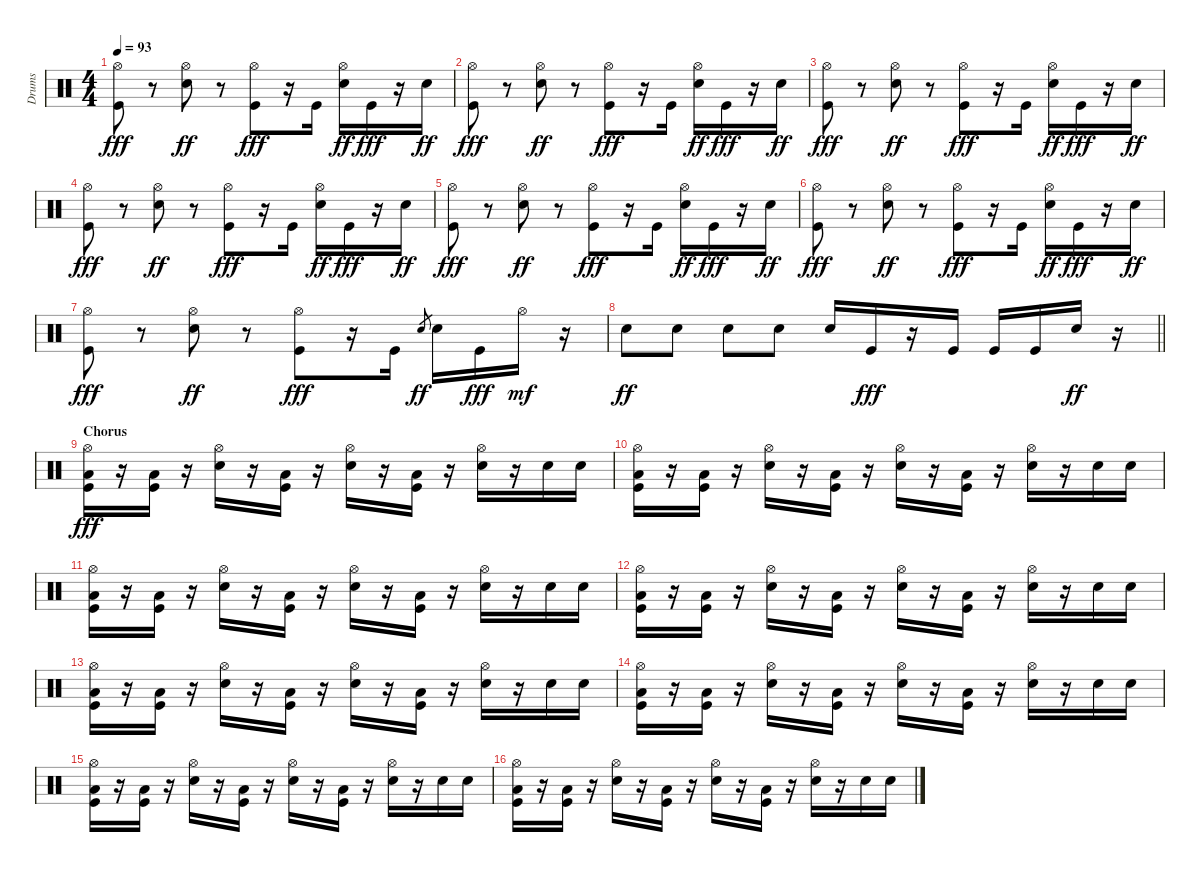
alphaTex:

\track ("Drums" "Drums") {instrument percussion}
\staff {score}
\articulation defaults
\ts (4 4)
\tempo 93
\clef neutral
\ks c
("Hi-Hat (open)" "Kick (hit)").8{dy fff} r.8 ("Hi-Hat (open)" "Electric Snare (hit)").8{dy ff} r.8 ("Hi-Hat (open)" "Kick (hit)").8{dy fff} r.16 "Kick (hit)".16 ("Hi-Hat (open)" "Electric Snare (hit)").16{dy ff} "Kick (hit)".16{dy fff} r.16 "Electric Snare (hit)".16{dy ff} |
("Hi-Hat (open)" "Kick (hit)").8{dy fff} r.8 ("Hi-Hat (open)" "Electric Snare (hit)").8{dy ff} r.8 ("Hi-Hat (open)" "Kick (hit)").8{dy fff} r.16 "Kick (hit)".16 ("Hi-Hat (open)" "Electric Snare (hit)").16{dy ff} "Kick (hit)".16{dy fff} r.16 "Electric Snare (hit)".16{dy ff} |
("Hi-Hat (open)" "Kick (hit)").8{dy fff} r.8 ("Hi-Hat (open)" "Electric Snare (hit)").8{dy ff} r.8 ("Hi-Hat (open)" "Kick (hit)").8{dy fff} r.16 "Kick (hit)".16 ("Hi-Hat (open)" "Electric Snare (hit)").16{dy ff} "Kick (hit)".16{dy fff} r.16 "Electric Snare (hit)".16{dy ff} |
("Hi-Hat (open)" "Kick (hit)").8{dy fff} r.8 ("Hi-Hat (open)" "Electric Snare (hit)").8{dy ff} r.8 ("Hi-Hat (open)" "Kick (hit)").8{dy fff} r.16 "Kick (hit)".16 ("Hi-Hat (open)" "Electric Snare (hit)").16{dy ff} "Kick (hit)".16{dy fff} r.16 "Electric Snare (hit)".16{dy ff} |
("Hi-Hat (open)" "Kick (hit)").8{dy fff} r.8 ("Hi-Hat (open)" "Electric Snare (hit)").8{dy ff} r.8 ("Hi-Hat (open)" "Kick (hit)").8{dy fff} r.16 "Kick (hit)".16 ("Hi-Hat (open)" "Electric Snare (hit)").16{dy ff} "Kick (hit)".16{dy fff} r.16 "Electric Snare (hit)".16{dy ff} |
("Hi-Hat (open)" "Kick (hit)").8{dy fff} r.8 ("Hi-Hat (open)" "Electric Snare (hit)").8{dy ff} r.8 ("Hi-Hat (open)" "Kick (hit)").8{dy fff} r.16 "Kick (hit)".16 ("Hi-Hat (open)" "Electric Snare (hit)").16{dy ff} "Kick (hit)".16{dy fff} r.16 "Electric Snare (hit)".16{dy ff} |
("Hi-Hat (open)" "Kick (hit)").8{dy fff} r.8 ("Hi-Hat (open)" "Electric Snare (hit)").8{dy ff} r.8 ("Hi-Hat (open)" "Kick (hit)").8{dy fff} r.16 "Kick (hit)".16 "Electric Snare (hit)".8{gr dy ff} "Electric Snare (hit)".16 "Kick (hit)".16{dy fff} "Hi-Hat (open)".16{dy mf} r.16 |
\barLineRight lightlight "Electric Snare (hit)".8{dy ff} "Electric Snare (hit)".8 "Electric Snare (hit)".8 "Electric Snare (hit)".8 "Electric Snare (hit)".16 "Kick (hit)".16{dy fff}
r.16 "Kick (hit)".16 "Kick (hit)".16 "Kick (hit)".16 "Electric Snare (hit)".16{dy ff} r.16 |
\section ("" "Chorus")
("Hi-Hat (open)" "Low Floor Tom (hit)" "Kick (hit)").16{dy fff} r.16 ("Low Floor Tom (hit)" "Kick (hit)").16 r.16 ("Hi-Hat (open)" "Electric Snare (hit)").16 r.16 ("Low Floor Tom (hit)" "Kick (hit)").16 r.16 ("Hi-Hat (open)" "Electric Snare (hit)").16 r.16 ("Low Floor Tom (hit)" "Kick (hit)").16 r.16 ("Hi-Hat (open)" "Electric Snare (hit)").16 r.16 "Electric Snare (hit)".16 "Electric Snare (hit)".16 |
("Hi-Hat (open)" "Low Floor Tom (hit)" "Kick (hit)").16 r.16 ("Low Floor Tom (hit)" "Kick (hit)").16 r.16 ("Hi-Hat (open)" "Electric Snare (hit)").16 r.16 ("Low Floor Tom (hit)" "Kick (hit)").16 r.16 ("Hi-Hat (open)" "Electric Snare (hit)").16 r.16 ("Low Floor Tom (hit)" "Kick (hit)").16 r.16 ("Hi-Hat (open)" "Electric Snare (hit)").16 r.16 "Electric Snare (hit)".16 "Electric Snare (hit)".16 |
("Hi-Hat (open)" "Low Floor Tom (hit)" "Kick (hit)").16 r.16 ("Low Floor Tom (hit)" "Kick (hit)").16 r.16 ("Hi-Hat (open)" "Electric Snare (hit)").16 r.16 ("Low Floor Tom (hit)" "Kick (hit)").16 r.16 ("Hi-Hat (open)" "Electric Snare (hit)").16 r.16 ("Low Floor Tom (hit)" "Kick (hit)").16 r.16 ("Hi-Hat (open)" "Electric Snare (hit)").16 r.16 "Electric Snare (hit)".16 "Electric Snare (hit)".16 |
("Hi-Hat (open)" "Low Floor Tom (hit)" "Kick (hit)").16 r.16 ("Low Floor Tom (hit)" "Kick (hit)").16 r.16 ("Hi-Hat (open)" "Electric Snare (hit)").16 r.16 ("Low Floor Tom (hit)" "Kick (hit)").16 r.16 ("Hi-Hat (open)" "Electric Snare (hit)").16 r.16 ("Low Floor Tom (hit)" "Kick (hit)").16 r.16 ("Hi-Hat (open)" "Electric Snare (hit)").16 r.16 "Electric Snare (hit)".16 "Electric Snare (hit)".16 |
("Hi-Hat (open)" "Low Floor Tom (hit)" "Kick (hit)").16 r.16 ("Low Floor Tom (hit)" "Kick (hit)").16 r.16 ("Hi-Hat (open)" "Electric Snare (hit)").16 r.16 ("Low Floor Tom (hit)" "Kick (hit)").16 r.16 ("Hi-Hat (open)" "Electric Snare (hit)").16 r.16 ("Low Floor Tom (hit)" "Kick (hit)").16 r.16 ("Hi-Hat (open)" "Electric Snare (hit)").16 r.16 "Electric Snare (hit)".16 "Electric Snare (hit)".16 |
("Hi-Hat (open)" "Low Floor Tom (hit)" "Kick (hit)").16 r.16 ("Low Floor Tom (hit)" "Kick (hit)").16 r.16 ("Hi-Hat (open)" "Electric Snare (hit)").16 r.16 ("Low Floor Tom (hit)" "Kick (hit)").16 r.16 ("Hi-Hat (open)" "Electric Snare (hit)").16 r.16 ("Low Floor Tom (hit)" "Kick (hit)").16 r.16 ("Hi-Hat (open)" "Electric Snare (hit)").16 r.16 "Electric Snare (hit)".16 "Electric Snare (hit)".16 |
("Hi-Hat (open)" "Low Floor Tom (hit)" "Kick (hit)").16 r.16 ("Low Floor Tom (hit)" "Kick (hit)").16 r.16 ("Hi-Hat (open)" "Electric Snare (hit)").16 r.16 ("Low Floor Tom (hit)" "Kick (hit)").16 r.16 ("Hi-Hat (open)" "Electric Snare (hit)").16 r.16 ("Low Floor Tom (hit)" "Kick (hit)").16 r.16 ("Hi-Hat (open)" "Electric Snare (hit)").16 r.16 "Electric Snare (hit)".16 "Electric Snare (hit)".16 |
("Hi-Hat (open)" "Low Floor Tom (hit)" "Kick (hit)").16 r.16 ("Low Floor Tom (hit)" "Kick (hit)").16 r.16 ("Hi-Hat (open)" "Electric Snare (hit)").16 r.16 ("Low Floor Tom (hit)" "Kick (hit)").16 r.16 ("Hi-Hat (open)" "Electric Snare (hit)").16 r.16 ("Low Floor Tom (hit)" "Kick (hit)").16 r.16 ("Hi-Hat (open)" "Electric Snare (hit)").16 r.16 "Electric Snare (hit)".16 "Electric Snare (hit)".16
